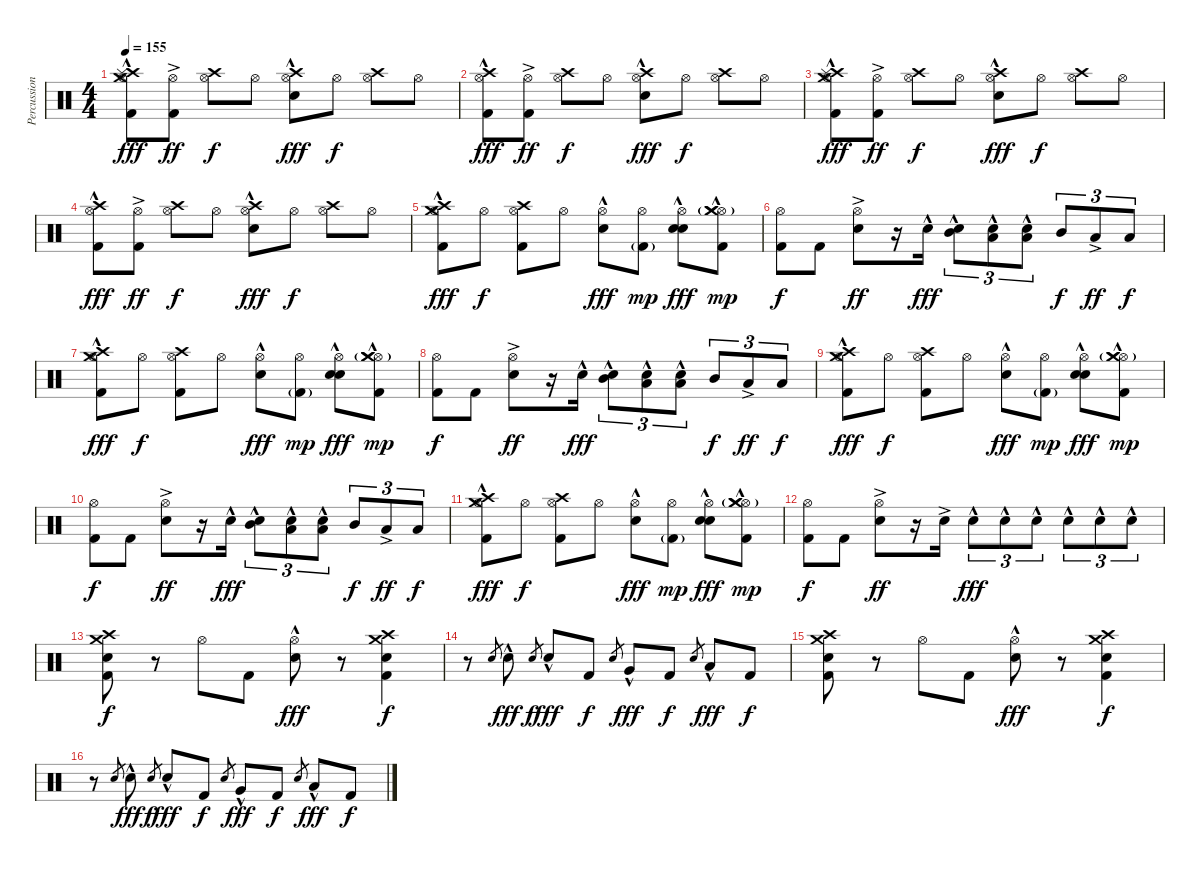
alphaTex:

\track ("Percussion" "Percussion") {instrument percussion}
\staff {score}
\articulation defaults
\ts (4 4)
\tempo 155
\clef neutral
\ks c
("Hi-Hat (open)" "Crash high (hit)" "Crash medium (hit)" "Splash (hit)" "Kick (hit) 2"{hac}).8{dy fff} ("Hi-Hat (open)" "Kick (hit) 2"{ac}).8{dy ff} ("Hi-Hat (open)" "Crash high (hit)").8{dy f} "Hi-Hat (open)".8 ("Hi-Hat (open)" "Crash high (hit)" "Electric Snare (hit)"{hac}).8{dy fff} "Hi-Hat (open)".8{dy f} ("Hi-Hat (open)" "Crash high (hit)").8 "Hi-Hat (open)".8 |
("Hi-Hat (open)" "Crash high (hit)" "Kick (hit) 2"{hac}).8{dy fff} ("Hi-Hat (open)" "Kick (hit) 2"{ac}).8{dy ff} ("Hi-Hat (open)" "Crash high (hit)").8{dy f} "Hi-Hat (open)".8 ("Hi-Hat (open)" "Crash high (hit)" "Electric Snare (hit)"{hac}).8{dy fff} "Hi-Hat (open)".8{dy f} ("Hi-Hat (open)" "Crash high (hit)").8 "Hi-Hat (open)".8 |
("Hi-Hat (open)" "Crash high (hit)" "Crash medium (hit)" "Splash (hit)" "Kick (hit) 2"{hac}).8{dy fff} ("Hi-Hat (open)" "Kick (hit) 2"{ac}).8{dy ff} ("Hi-Hat (open)" "Crash high (hit)").8{dy f} "Hi-Hat (open)".8 ("Hi-Hat (open)" "Crash high (hit)" "Electric Snare (hit)"{hac}).8{dy fff} "Hi-Hat (open)".8{dy f} ("Hi-Hat (open)" "Crash high (hit)").8 "Hi-Hat (open)".8 |
("Hi-Hat (open)" "Crash high (hit)" "Kick (hit) 2"{hac}).8{dy fff} ("Hi-Hat (open)" "Kick (hit) 2"{ac}).8{dy ff} ("Hi-Hat (open)" "Crash high (hit)").8{dy f} "Hi-Hat (open)".8 ("Hi-Hat (open)" "Crash high (hit)" "Electric Snare (hit)"{hac}).8{dy fff} "Hi-Hat (open)".8{dy f} ("Hi-Hat (open)" "Crash high (hit)").8 "Hi-Hat (open)".8 |
("Hi-Hat (open)" "Crash high (hit)"{hac} "Crash medium (hit)"{hac} "Kick (hit) 2"{hac}).8{dy fff} "Hi-Hat (open)".8{dy f} ("Hi-Hat (open)" "Crash high (hit)" "Kick (hit) 2").8 "Hi-Hat (open)".8 ("Hi-Hat (open)" "Electric Snare (hit)"{hac}).8{dy fff} ("Hi-Hat (open)" "Kick (hit) 2"{g}).8{dy mp} ("Hi-Hat (open)" "Snare (hit) 2"{hac} "Electric Snare (hit)"{hac}).8{dy fff} ("Hi-Hat (open)" "Crash medium (hit)"{hac} "Crash medium (hit)"{g} "Kick (hit) 2").8{dy mp} |
("Hi-Hat (open)" "Kick (hit) 2").8{dy f} "Kick (hit) 2".8 ("Hi-Hat (open)" "Electric Snare (hit)"{ac}).8{dy ff} r.16 "Electric Snare (hit)"{hac}.16{dy fff} ("Electric Snare (hit)"{hac} "Mid Tom (hit)"{hac}).8{tu (3 2)} ("Electric Snare (hit)" "Low Tom (hit)"{hac}).8{tu (3 2)} ("Electric Snare (hit)" "Low Floor Tom (hit)"{hac}).8{tu (3 2)} "Mid Tom (hit)".8{tu (3 2) dy f} "Low Tom (hit)"{ac}.8{tu (3 2) dy ff} "Low Floor Tom (hit)".8{tu (3 2) dy f} |
("Hi-Hat (open)" "Crash high (hit)"{hac} "Crash medium (hit)"{hac} "Kick (hit) 2"{hac}).8{dy fff} "Hi-Hat (open)".8{dy f} ("Hi-Hat (open)" "Crash high (hit)" "Kick (hit) 2").8 "Hi-Hat (open)".8 ("Hi-Hat (open)" "Electric Snare (hit)"{hac}).8{dy fff} ("Hi-Hat (open)" "Kick (hit) 2"{g}).8{dy mp} ("Hi-Hat (open)" "Snare (hit) 2"{hac} "Electric Snare (hit)"{hac}).8{dy fff} ("Hi-Hat (open)" "Crash medium (hit)"{hac} "Crash medium (hit)"{g} "Kick (hit) 2").8{dy mp} |
("Hi-Hat (open)" "Kick (hit) 2").8{dy f} "Kick (hit) 2".8 ("Hi-Hat (open)" "Electric Snare (hit)"{ac}).8{dy ff} r.16 "Electric Snare (hit)"{hac}.16{dy fff} ("Electric Snare (hit)"{hac} "Mid Tom (hit)"{hac}).8{tu (3 2)} ("Electric Snare (hit)" "Low Tom (hit)"{hac}).8{tu (3 2)} ("Electric Snare (hit)" "Low Floor Tom (hit)"{hac}).8{tu (3 2)} "Mid Tom (hit)".8{tu (3 2) dy f} "Low Tom (hit)"{ac}.8{tu (3 2) dy ff} "Low Floor Tom (hit)".8{tu (3 2) dy f} |
("Hi-Hat (open)" "Crash high (hit)"{hac} "Crash medium (hit)"{hac} "Kick (hit) 2"{hac}).8{dy fff} "Hi-Hat (open)".8{dy f} ("Hi-Hat (open)" "Crash high (hit)" "Kick (hit) 2").8 "Hi-Hat (open)".8 ("Hi-Hat (open)" "Electric Snare (hit)"{hac}).8{dy fff} ("Hi-Hat (open)" "Kick (hit) 2"{g}).8{dy mp} ("Hi-Hat (open)" "Snare (hit) 2"{hac} "Electric Snare (hit)"{hac}).8{dy fff} ("Hi-Hat (open)" "Crash medium (hit)"{hac} "Crash medium (hit)"{g} "Kick (hit) 2").8{dy mp} |
("Hi-Hat (open)" "Kick (hit) 2").8{dy f} "Kick (hit) 2".8 ("Hi-Hat (open)" "Electric Snare (hit)"{ac}).8{dy ff} r.16 "Electric Snare (hit)"{hac}.16{dy fff} ("Electric Snare (hit)"{hac} "Mid Tom (hit)"{hac}).8{tu (3 2)} ("Electric Snare (hit)" "Low Tom (hit)"{hac}).8{tu (3 2)} ("Electric Snare (hit)" "Low Floor Tom (hit)"{hac}).8{tu (3 2)} "Mid Tom (hit)".8{tu (3 2) dy f} "Low Tom (hit)"{ac}.8{tu (3 2) dy ff} "Low Floor Tom (hit)".8{tu (3 2) dy f} |
("Hi-Hat (open)" "Crash high (hit)"{hac} "Crash medium (hit)"{hac} "Kick (hit) 2"{hac}).8{dy fff} "Hi-Hat (open)".8{dy f} ("Hi-Hat (open)" "Crash high (hit)" "Kick (hit) 2").8 "Hi-Hat (open)".8 ("Hi-Hat (open)" "Electric Snare (hit)"{hac}).8{dy fff} ("Hi-Hat (open)" "Kick (hit) 2"{g}).8{dy mp} ("Hi-Hat (open)" "Snare (hit) 2"{hac} "Electric Snare (hit)"{hac}).8{dy fff} ("Hi-Hat (open)" "Crash medium (hit)"{hac} "Crash medium (hit)"{g} "Kick (hit) 2").8{dy mp} |
("Hi-Hat (open)" "Kick (hit) 2").8{dy f} "Kick (hit) 2".8 ("Hi-Hat (open)" "Electric Snare (hit)"{ac}).8{dy ff} r.16 "Electric Snare (hit)"{ac}.16 "Electric Snare (hit)"{hac}.8{tu (3 2) dy fff} "Electric Snare (hit)"{hac}.8{tu (3 2)} "Electric Snare (hit)"{hac}.8{tu (3 2)} "Electric Snare (hit)"{hac}.8{tu (3 2)} "Electric Snare (hit)"{hac}.8{tu (3 2)} "Electric Snare (hit)"{hac}.8{tu (3 2)} |
("Crash high (hit)" "Crash medium (hit)" "Electric Snare (hit)" "Kick (hit) 2").8{dy f} r.8 "Hi-Hat (open)".8 "Kick (hit) 2".8 ("Hi-Hat (open)" "Electric Snare (hit)"{hac}).8{dy fff} r.8 ("Crash high (hit)" "Crash medium (hit)" "Electric Snare (hit)" "Kick (hit) 2").4{dy f} |
r.8 "Electric Snare (hit)".8{gr} "Electric Snare (hit)"{hac}.8{dy fff} "Electric Snare (hit)".8{gr dy f} "Electric Snare (hit)"{hac}.8{dy fff} "Kick (hit) 2".8{dy f} "Electric Snare (hit)"{x}.8{gr} "Very Low Tom (hit)"{hac}.8{dy fff} "Kick (hit) 2".8{dy f} "Electric Snare (hit)"{x}.8{gr} "Low Floor Tom (hit)"{hac}.8{dy fff} "Kick (hit) 2".8{dy f} |
("Crash high (hit)" "Crash medium (hit)" "Electric Snare (hit)" "Kick (hit) 2").8 r.8 "Hi-Hat (open)".8 "Kick (hit) 2".8 ("Hi-Hat (open)" "Electric Snare (hit)"{hac}).8{dy fff} r.8 ("Crash high (hit)" "Crash medium (hit)" "Electric Snare (hit)" "Kick (hit) 2").4{dy f} |
r.8 "Electric Snare (hit)".8{gr} "Electric Snare (hit)"{hac}.8{dy fff} "Electric Snare (hit)".8{gr dy f} "Electric Snare (hit)"{hac}.8{dy fff} "Kick (hit) 2".8{dy f} "Electric Snare (hit)"{x}.8{gr} "Very Low Tom (hit)"{hac}.8{dy fff} "Kick (hit) 2".8{dy f} "Electric Snare (hit)"{x}.8{gr} "Low Floor Tom (hit)"{hac}.8{dy fff} "Kick (hit) 2".8{dy f}
